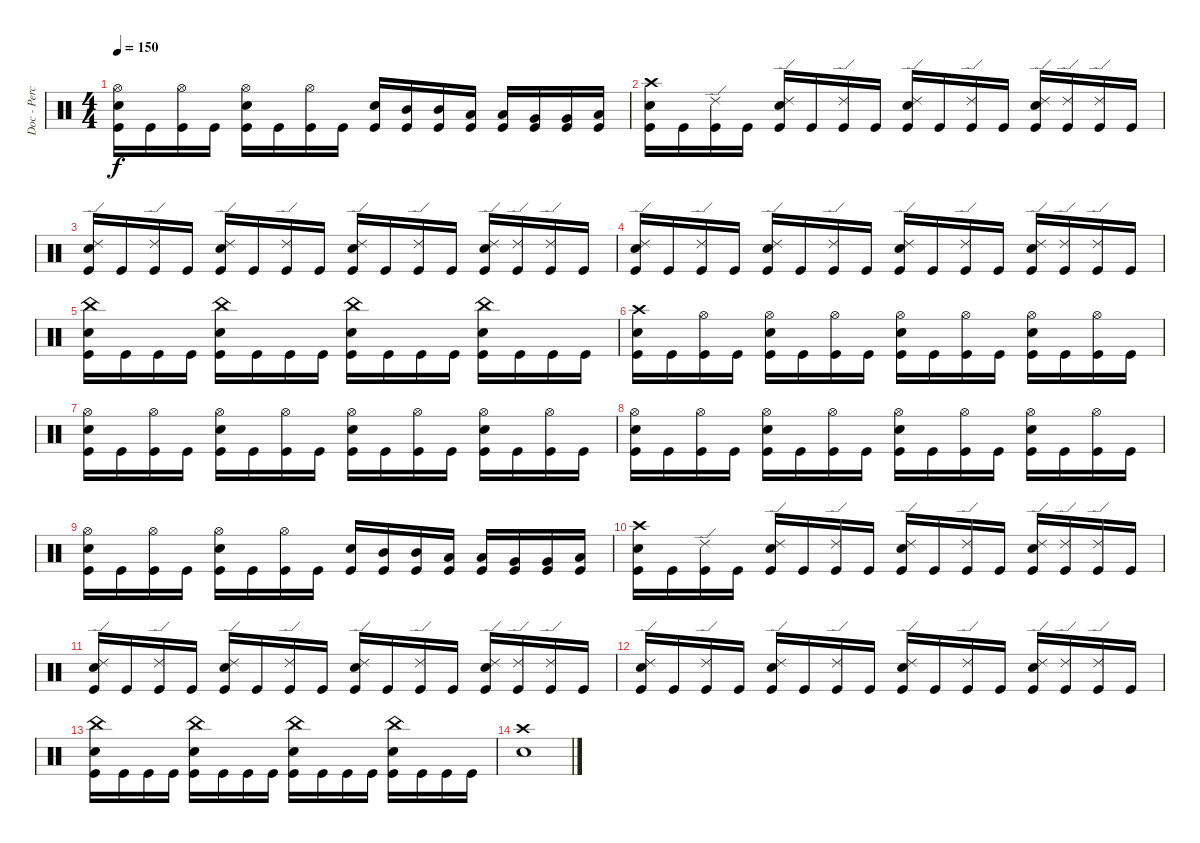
\track ("Doc - Percussion" "Doc - Perc") {instrument percussion}
\staff {score}
\articulation defaults
\ts (4 4)
\tempo 150
\clef neutral
\ks c
("Hi-Hat (open)" "Electric Snare (hit)" "Kick (hit)").16{dy f} "Kick (hit)".16 ("Hi-Hat (open)" "Kick (hit)").16 "Kick (hit)".16 ("Hi-Hat (open)" "Electric Snare (hit)" "Kick (hit)").16 "Kick (hit)".16 ("Hi-Hat (open)" "Kick (hit)").16 "Kick (hit)".16 ("Electric Snare (hit)" "Kick (hit)").16 ("Mid Tom (hit)" "Kick (hit)").16 ("Mid Tom (hit)" "Kick (hit)").16 ("Low Tom (hit)" "Kick (hit)").16 ("Low Tom (hit)" "Kick (hit)").16 ("Very Low Tom (hit)" "Kick (hit)").16 ("Very Low Tom (hit)" "Kick (hit)").16 ("Low Floor Tom (hit)" "Kick (hit)").16 |
("Crash high (hit)" "Electric Snare (hit)" "Kick (hit)").16 "Kick (hit)".16 ("Ride (edge) 2" "Kick (hit)").16 "Kick (hit)".16 ("Ride (edge) 2" "Electric Snare (hit)" "Kick (hit)").16 "Kick (hit)".16 ("Ride (edge) 2" "Kick (hit)").16 "Kick (hit)".16 ("Ride (edge) 2" "Electric Snare (hit)" "Kick (hit)").16 "Kick (hit)".16 ("Ride (edge) 2" "Kick (hit)").16 "Kick (hit)".16 ("Ride (edge) 2" "Electric Snare (hit)" "Kick (hit)").16 ("Ride (edge) 2" "Kick (hit)").16 ("Ride (edge) 2" "Kick (hit)").16 "Kick (hit)".16 |
("Ride (edge) 2" "Electric Snare (hit)" "Kick (hit)").16 "Kick (hit)".16 ("Ride (edge) 2" "Kick (hit)").16 "Kick (hit)".16 ("Ride (edge) 2" "Electric Snare (hit)" "Kick (hit)").16 "Kick (hit)".16 ("Ride (edge) 2" "Kick (hit)").16 "Kick (hit)".16 ("Ride (edge) 2" "Electric Snare (hit)" "Kick (hit)").16 "Kick (hit)".16 ("Ride (edge) 2" "Kick (hit)").16 "Kick (hit)".16 ("Ride (edge) 2" "Electric Snare (hit)" "Kick (hit)").16 ("Ride (edge) 2" "Kick (hit)").16 ("Ride (edge) 2" "Kick (hit)").16 "Kick (hit)".16 |
("Ride (edge) 2" "Electric Snare (hit)" "Kick (hit)").16 "Kick (hit)".16 ("Ride (edge) 2" "Kick (hit)").16 "Kick (hit)".16 ("Ride (edge) 2" "Electric Snare (hit)" "Kick (hit)").16 "Kick (hit)".16 ("Ride (edge) 2" "Kick (hit)").16 "Kick (hit)".16 ("Ride (edge) 2" "Electric Snare (hit)" "Kick (hit)").16 "Kick (hit)".16 ("Ride (edge) 2" "Kick (hit)").16 "Kick (hit)".16 ("Ride (edge) 2" "Electric Snare (hit)" "Kick (hit)").16 ("Ride (edge) 2" "Kick (hit)").16 ("Ride (edge) 2" "Kick (hit)").16 "Kick (hit)".16 |
("China (hit)" "Electric Snare (hit)" "Kick (hit)").16 "Kick (hit)".16 "Kick (hit)".16 "Kick (hit)".16 ("China (hit)" "Electric Snare (hit)" "Kick (hit)").16 "Kick (hit)".16 "Kick (hit)".16 "Kick (hit)".16 ("China (hit)" "Electric Snare (hit)" "Kick (hit)").16 "Kick (hit)".16 "Kick (hit)".16 "Kick (hit)".16 ("China (hit)" "Electric Snare (hit)" "Kick (hit)").16 "Kick (hit)".16 "Kick (hit)".16 "Kick (hit)".16 |
("Crash high (hit)" "Electric Snare (hit)" "Kick (hit)").16 "Kick (hit)".16 ("Hi-Hat (open)" "Kick (hit)").16 "Kick (hit)".16 ("Hi-Hat (open)" "Electric Snare (hit)" "Kick (hit)").16 "Kick (hit)".16 ("Hi-Hat (open)" "Kick (hit)").16 "Kick (hit)".16 ("Hi-Hat (open)" "Electric Snare (hit)" "Kick (hit)").16 "Kick (hit)".16 ("Hi-Hat (open)" "Kick (hit)").16 "Kick (hit)".16 ("Hi-Hat (open)" "Electric Snare (hit)" "Kick (hit)").16 "Kick (hit)".16 ("Hi-Hat (open)" "Kick (hit)").16 "Kick (hit)".16 |
("Hi-Hat (open)" "Electric Snare (hit)" "Kick (hit)").16 "Kick (hit)".16 ("Hi-Hat (open)" "Kick (hit)").16 "Kick (hit)".16 ("Hi-Hat (open)" "Electric Snare (hit)" "Kick (hit)").16 "Kick (hit)".16 ("Hi-Hat (open)" "Kick (hit)").16 "Kick (hit)".16 ("Hi-Hat (open)" "Electric Snare (hit)" "Kick (hit)").16 "Kick (hit)".16 ("Hi-Hat (open)" "Kick (hit)").16 "Kick (hit)".16 ("Hi-Hat (open)" "Electric Snare (hit)" "Kick (hit)").16 "Kick (hit)".16 ("Hi-Hat (open)" "Kick (hit)").16 "Kick (hit)".16 |
("Hi-Hat (open)" "Electric Snare (hit)" "Kick (hit)").16 "Kick (hit)".16 ("Hi-Hat (open)" "Kick (hit)").16 "Kick (hit)".16 ("Hi-Hat (open)" "Electric Snare (hit)" "Kick (hit)").16 "Kick (hit)".16 ("Hi-Hat (open)" "Kick (hit)").16 "Kick (hit)".16 ("Hi-Hat (open)" "Electric Snare (hit)" "Kick (hit)").16 "Kick (hit)".16 ("Hi-Hat (open)" "Kick (hit)").16 "Kick (hit)".16 ("Hi-Hat (open)" "Electric Snare (hit)" "Kick (hit)").16 "Kick (hit)".16 ("Hi-Hat (open)" "Kick (hit)").16 "Kick (hit)".16 |
("Hi-Hat (open)" "Electric Snare (hit)" "Kick (hit)").16 "Kick (hit)".16 ("Hi-Hat (open)" "Kick (hit)").16 "Kick (hit)".16 ("Hi-Hat (open)" "Electric Snare (hit)" "Kick (hit)").16 "Kick (hit)".16 ("Hi-Hat (open)" "Kick (hit)").16 "Kick (hit)".16 ("Electric Snare (hit)" "Kick (hit)").16 ("Mid Tom (hit)" "Kick (hit)").16 ("Mid Tom (hit)" "Kick (hit)").16 ("Low Tom (hit)" "Kick (hit)").16 ("Low Tom (hit)" "Kick (hit)").16 ("Very Low Tom (hit)" "Kick (hit)").16 ("Very Low Tom (hit)" "Kick (hit)").16 ("Low Floor Tom (hit)" "Kick (hit)").16 |
("Crash high (hit)" "Electric Snare (hit)" "Kick (hit)").16 "Kick (hit)".16 ("Ride (edge) 2" "Kick (hit)").16 "Kick (hit)".16 ("Ride (edge) 2" "Electric Snare (hit)" "Kick (hit)").16 "Kick (hit)".16 ("Ride (edge) 2" "Kick (hit)").16 "Kick (hit)".16 ("Ride (edge) 2" "Electric Snare (hit)" "Kick (hit)").16 "Kick (hit)".16 ("Ride (edge) 2" "Kick (hit)").16 "Kick (hit)".16 ("Ride (edge) 2" "Electric Snare (hit)" "Kick (hit)").16 ("Ride (edge) 2" "Kick (hit)").16 ("Ride (edge) 2" "Kick (hit)").16 "Kick (hit)".16 |
("Ride (edge) 2" "Electric Snare (hit)" "Kick (hit)").16 "Kick (hit)".16 ("Ride (edge) 2" "Kick (hit)").16 "Kick (hit)".16 ("Ride (edge) 2" "Electric Snare (hit)" "Kick (hit)").16 "Kick (hit)".16 ("Ride (edge) 2" "Kick (hit)").16 "Kick (hit)".16 ("Ride (edge) 2" "Electric Snare (hit)" "Kick (hit)").16 "Kick (hit)".16 ("Ride (edge) 2" "Kick (hit)").16 "Kick (hit)".16 ("Ride (edge) 2" "Electric Snare (hit)" "Kick (hit)").16 ("Ride (edge) 2" "Kick (hit)").16 ("Ride (edge) 2" "Kick (hit)").16 "Kick (hit)".16 |
("Ride (edge) 2" "Electric Snare (hit)" "Kick (hit)").16 "Kick (hit)".16 ("Ride (edge) 2" "Kick (hit)").16 "Kick (hit)".16 ("Ride (edge) 2" "Electric Snare (hit)" "Kick (hit)").16 "Kick (hit)".16 ("Ride (edge) 2" "Kick (hit)").16 "Kick (hit)".16 ("Ride (edge) 2" "Electric Snare (hit)" "Kick (hit)").16 "Kick (hit)".16 ("Ride (edge) 2" "Kick (hit)").16 "Kick (hit)".16 ("Ride (edge) 2" "Electric Snare (hit)" "Kick (hit)").16 ("Ride (edge) 2" "Kick (hit)").16 ("Ride (edge) 2" "Kick (hit)").16 "Kick (hit)".16 |
("China (hit)" "Electric Snare (hit)" "Kick (hit)").16 "Kick (hit)".16 "Kick (hit)".16 "Kick (hit)".16 ("China (hit)" "Electric Snare (hit)" "Kick (hit)").16 "Kick (hit)".16 "Kick (hit)".16 "Kick (hit)".16 ("China (hit)" "Electric Snare (hit)" "Kick (hit)").16 "Kick (hit)".16 "Kick (hit)".16 "Kick (hit)".16 ("China (hit)" "Electric Snare (hit)" "Kick (hit)").16 "Kick (hit)".16 "Kick (hit)".16 "Kick (hit)".16 |
("Crash high (hit)" "Snare (hit)").1
